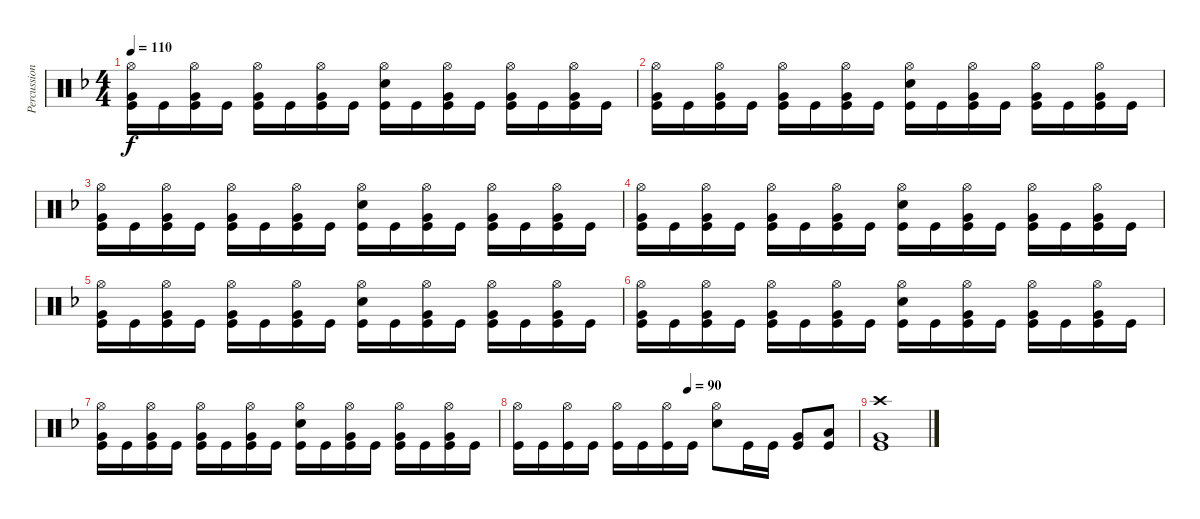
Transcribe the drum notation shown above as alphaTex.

\track ("Percussion" "Percussion") {instrument percussion}
\staff {score}
\articulation defaults
\ts (4 4)
\tempo 110
\clef neutral
\ks dminor
("Hi-Hat (open)" "Very Low Tom (hit)" "Kick (hit)").16{dy f volume 9} "Kick (hit)".16 ("Hi-Hat (open)" "Very Low Tom (hit)" "Kick (hit)").16 "Kick (hit)".16 ("Hi-Hat (open)" "Very Low Tom (hit)" "Kick (hit)").16 "Kick (hit)".16 ("Hi-Hat (open)" "Very Low Tom (hit)" "Kick (hit)").16 "Kick (hit)".16 ("Hi-Hat (open)" "Snare (hit) 2" "Kick (hit)").16 "Kick (hit)".16 ("Hi-Hat (open)" "Very Low Tom (hit)" "Kick (hit)").16 "Kick (hit)".16 ("Hi-Hat (open)" "Very Low Tom (hit)" "Kick (hit)").16 "Kick (hit)".16 ("Hi-Hat (open)" "Very Low Tom (hit)" "Kick (hit)").16 "Kick (hit)".16 |
("Hi-Hat (open)" "Very Low Tom (hit)" "Kick (hit)").16 "Kick (hit)".16 ("Hi-Hat (open)" "Very Low Tom (hit)" "Kick (hit)").16 "Kick (hit)".16 ("Hi-Hat (open)" "Very Low Tom (hit)" "Kick (hit)").16 "Kick (hit)".16 ("Hi-Hat (open)" "Very Low Tom (hit)" "Kick (hit)").16 "Kick (hit)".16 ("Hi-Hat (open)" "Snare (hit) 2" "Kick (hit)").16 "Kick (hit)".16 ("Hi-Hat (open)" "Very Low Tom (hit)" "Kick (hit)").16 "Kick (hit)".16 ("Hi-Hat (open)" "Very Low Tom (hit)" "Kick (hit)").16 "Kick (hit)".16 ("Hi-Hat (open)" "Very Low Tom (hit)" "Kick (hit)").16 "Kick (hit)".16 |
("Hi-Hat (open)" "Very Low Tom (hit)" "Kick (hit)").16 "Kick (hit)".16 ("Hi-Hat (open)" "Very Low Tom (hit)" "Kick (hit)").16 "Kick (hit)".16 ("Hi-Hat (open)" "Very Low Tom (hit)" "Kick (hit)").16 "Kick (hit)".16 ("Hi-Hat (open)" "Very Low Tom (hit)" "Kick (hit)").16 "Kick (hit)".16 ("Hi-Hat (open)" "Snare (hit) 2" "Kick (hit)").16 "Kick (hit)".16 ("Hi-Hat (open)" "Very Low Tom (hit)" "Kick (hit)").16 "Kick (hit)".16 ("Hi-Hat (open)" "Very Low Tom (hit)" "Kick (hit)").16 "Kick (hit)".16 ("Hi-Hat (open)" "Very Low Tom (hit)" "Kick (hit)").16 "Kick (hit)".16 |
("Hi-Hat (open)" "Very Low Tom (hit)" "Kick (hit)").16 "Kick (hit)".16 ("Hi-Hat (open)" "Very Low Tom (hit)" "Kick (hit)").16 "Kick (hit)".16 ("Hi-Hat (open)" "Very Low Tom (hit)" "Kick (hit)").16 "Kick (hit)".16 ("Hi-Hat (open)" "Very Low Tom (hit)" "Kick (hit)").16 "Kick (hit)".16 ("Hi-Hat (open)" "Snare (hit) 2" "Kick (hit)").16 "Kick (hit)".16 ("Hi-Hat (open)" "Very Low Tom (hit)" "Kick (hit)").16 "Kick (hit)".16 ("Hi-Hat (open)" "Very Low Tom (hit)" "Kick (hit)").16 "Kick (hit)".16 ("Hi-Hat (open)" "Very Low Tom (hit)" "Kick (hit)").16 "Kick (hit)".16 |
("Hi-Hat (open)" "Very Low Tom (hit)" "Kick (hit)").16{volume 9} "Kick (hit)".16 ("Hi-Hat (open)" "Very Low Tom (hit)" "Kick (hit)").16 "Kick (hit)".16 ("Hi-Hat (open)" "Very Low Tom (hit)" "Kick (hit)").16 "Kick (hit)".16 ("Hi-Hat (open)" "Very Low Tom (hit)" "Kick (hit)").16 "Kick (hit)".16 ("Hi-Hat (open)" "Snare (hit) 2" "Kick (hit)").16 "Kick (hit)".16 ("Hi-Hat (open)" "Very Low Tom (hit)" "Kick (hit)").16 "Kick (hit)".16 ("Hi-Hat (open)" "Very Low Tom (hit)" "Kick (hit)").16 "Kick (hit)".16 ("Hi-Hat (open)" "Very Low Tom (hit)" "Kick (hit)").16 "Kick (hit)".16 |
("Hi-Hat (open)" "Very Low Tom (hit)" "Kick (hit)").16 "Kick (hit)".16 ("Hi-Hat (open)" "Very Low Tom (hit)" "Kick (hit)").16 "Kick (hit)".16 ("Hi-Hat (open)" "Very Low Tom (hit)" "Kick (hit)").16 "Kick (hit)".16 ("Hi-Hat (open)" "Very Low Tom (hit)" "Kick (hit)").16 "Kick (hit)".16 ("Hi-Hat (open)" "Snare (hit) 2" "Kick (hit)").16 "Kick (hit)".16 ("Hi-Hat (open)" "Very Low Tom (hit)" "Kick (hit)").16 "Kick (hit)".16 ("Hi-Hat (open)" "Very Low Tom (hit)" "Kick (hit)").16 "Kick (hit)".16 ("Hi-Hat (open)" "Very Low Tom (hit)" "Kick (hit)").16 "Kick (hit)".16 |
("Hi-Hat (open)" "Very Low Tom (hit)" "Kick (hit)").16 "Kick (hit)".16 ("Hi-Hat (open)" "Very Low Tom (hit)" "Kick (hit)").16 "Kick (hit)".16 ("Hi-Hat (open)" "Very Low Tom (hit)" "Kick (hit)").16 "Kick (hit)".16 ("Hi-Hat (open)" "Very Low Tom (hit)" "Kick (hit)").16 "Kick (hit)".16 ("Hi-Hat (open)" "Snare (hit) 2" "Kick (hit)").16 "Kick (hit)".16 ("Hi-Hat (open)" "Very Low Tom (hit)" "Kick (hit)").16 "Kick (hit)".16 ("Hi-Hat (open)" "Very Low Tom (hit)" "Kick (hit)").16 "Kick (hit)".16 ("Hi-Hat (open)" "Very Low Tom (hit)" "Kick (hit)").16 "Kick (hit)".16 |
\tempo (90 0.5)
("Hi-Hat (open)" "Kick (hit)").16 "Kick (hit)".16 ("Hi-Hat (open)" "Kick (hit)").16 "Kick (hit)".16 ("Hi-Hat (open)" "Kick (hit)").16 "Kick (hit)".16 ("Hi-Hat (open)" "Kick (hit)").16 "Kick (hit)".16 ("Hi-Hat (open)" "Snare (hit) 2").8 "Kick (hit)".16 "Kick (hit)".16 ("Very Low Tom (hit)" "Kick (hit)").8 ("Low Tom (hit)" "Kick (hit)").8 |
("Crash high (hit)" "Very Low Tom (hit)" "Kick (hit)").1
